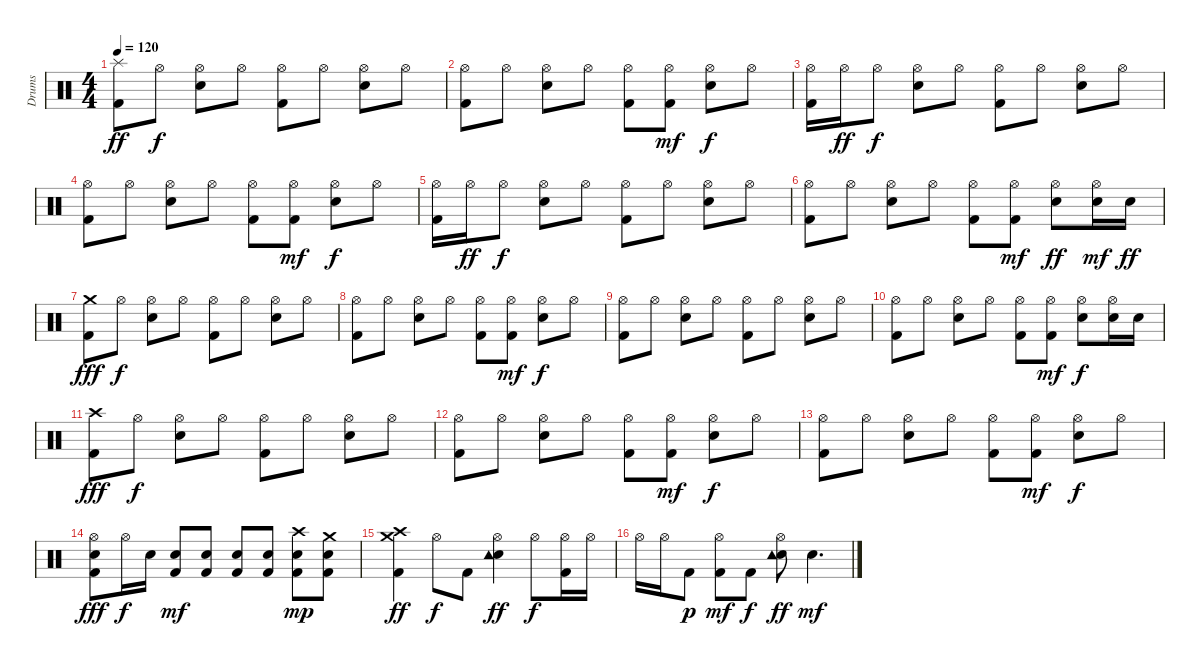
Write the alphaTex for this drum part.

\track ("Drums" "Drums") {instrument percussion}
\staff {score}
\articulation defaults
\ts (4 4)
\tempo 120
\clef neutral
\ks c
("Splash (hit)" "Kick (hit) 2").8{dy ff} "Hi-Hat (open)".8{dy f} ("Hi-Hat (open)" "Electric Snare (hit)").8 "Hi-Hat (open)".8 ("Hi-Hat (open)" "Kick (hit) 2").8 "Hi-Hat (open)".8 ("Hi-Hat (open)" "Electric Snare (hit)").8 "Hi-Hat (open)".8 |
("Hi-Hat (open)" "Kick (hit) 2").8 "Hi-Hat (open)".8 ("Hi-Hat (open)" "Electric Snare (hit)").8 "Hi-Hat (open)".8 ("Hi-Hat (open)" "Kick (hit) 2").8 ("Hi-Hat (open)" "Kick (hit) 2").8{dy mf} ("Hi-Hat (open)" "Electric Snare (hit)").8{dy f} "Hi-Hat (open)".8 |
("Hi-Hat (open)" "Kick (hit) 2").16 "Hi-Hat (open)".16{dy ff} "Hi-Hat (open)".8{dy f} ("Hi-Hat (open)" "Electric Snare (hit)").8 "Hi-Hat (open)".8 ("Hi-Hat (open)" "Kick (hit) 2").8 "Hi-Hat (open)".8 ("Hi-Hat (open)" "Electric Snare (hit)").8 "Hi-Hat (open)".8 |
("Hi-Hat (open)" "Kick (hit) 2").8 "Hi-Hat (open)".8 ("Hi-Hat (open)" "Electric Snare (hit)").8 "Hi-Hat (open)".8 ("Hi-Hat (open)" "Kick (hit) 2").8 ("Hi-Hat (open)" "Kick (hit) 2").8{dy mf} ("Hi-Hat (open)" "Electric Snare (hit)").8{dy f} "Hi-Hat (open)".8 |
("Hi-Hat (open)" "Kick (hit) 2").16 "Hi-Hat (open)".16{dy ff} "Hi-Hat (open)".8{dy f} ("Hi-Hat (open)" "Electric Snare (hit)").8 "Hi-Hat (open)".8 ("Hi-Hat (open)" "Kick (hit) 2").8 "Hi-Hat (open)".8 ("Hi-Hat (open)" "Electric Snare (hit)").8 "Hi-Hat (open)".8 |
("Hi-Hat (open)" "Kick (hit) 2").8 "Hi-Hat (open)".8 ("Hi-Hat (open)" "Electric Snare (hit)").8 "Hi-Hat (open)".8 ("Hi-Hat (open)" "Kick (hit) 2").8 ("Hi-Hat (open)" "Kick (hit) 2").8{dy mf} ("Hi-Hat (open)" "Electric Snare (hit)").8{dy ff} ("Hi-Hat (open)" "Electric Snare (hit)").16{dy mf} "Electric Snare (hit)".16{dy ff} |
("Crash medium (hit)" "Kick (hit) 2").8{dy fff} "Hi-Hat (open)".8{dy f} ("Hi-Hat (open)" "Electric Snare (hit)").8 "Hi-Hat (open)".8 ("Hi-Hat (open)" "Kick (hit) 2").8 "Hi-Hat (open)".8 ("Hi-Hat (open)" "Electric Snare (hit)").8 "Hi-Hat (open)".8 |
("Hi-Hat (open)" "Kick (hit) 2").8 "Hi-Hat (open)".8 ("Hi-Hat (open)" "Electric Snare (hit)").8 "Hi-Hat (open)".8 ("Hi-Hat (open)" "Kick (hit) 2").8 ("Hi-Hat (open)" "Kick (hit) 2").8{dy mf} ("Hi-Hat (open)" "Electric Snare (hit)").8{dy f} "Hi-Hat (open)".8 |
("Hi-Hat (open)" "Kick (hit) 2").8 "Hi-Hat (open)".8 ("Hi-Hat (open)" "Electric Snare (hit)").8 "Hi-Hat (open)".8 ("Hi-Hat (open)" "Kick (hit) 2").8 "Hi-Hat (open)".8 ("Hi-Hat (open)" "Electric Snare (hit)").8 "Hi-Hat (open)".8 |
("Hi-Hat (open)" "Kick (hit) 2").8 "Hi-Hat (open)".8 ("Hi-Hat (open)" "Electric Snare (hit)").8 "Hi-Hat (open)".8 ("Hi-Hat (open)" "Kick (hit) 2").8 ("Hi-Hat (open)" "Kick (hit) 2").8{dy mf} ("Hi-Hat (open)" "Electric Snare (hit)").8{dy f} ("Hi-Hat (open)" "Electric Snare (hit)").16 "Electric Snare (hit)".16 |
("Crash high (hit)" "Kick (hit) 2").8{dy fff} "Hi-Hat (open)".8{dy f} ("Hi-Hat (open)" "Electric Snare (hit)").8 "Hi-Hat (open)".8 ("Hi-Hat (open)" "Kick (hit) 2").8 "Hi-Hat (open)".8 ("Hi-Hat (open)" "Electric Snare (hit)").8 "Hi-Hat (open)".8 |
("Hi-Hat (open)" "Kick (hit) 2").8 "Hi-Hat (open)".8 ("Hi-Hat (open)" "Electric Snare (hit)").8 "Hi-Hat (open)".8 ("Hi-Hat (open)" "Kick (hit) 2").8 ("Hi-Hat (open)" "Kick (hit) 2").8{dy mf} ("Hi-Hat (open)" "Electric Snare (hit)").8{dy f} "Hi-Hat (open)".8 |
("Hi-Hat (open)" "Kick (hit) 2").8 "Hi-Hat (open)".8 ("Hi-Hat (open)" "Electric Snare (hit)").8 "Hi-Hat (open)".8 ("Hi-Hat (open)" "Kick (hit) 2").8 ("Hi-Hat (open)" "Kick (hit) 2").8{dy mf} ("Hi-Hat (open)" "Electric Snare (hit)").8{dy f} "Hi-Hat (open)".8 |
("Hi-Hat (open)" "Electric Snare (hit)" "Kick (hit) 2").8{dy fff} "Hi-Hat (open)".16{dy f} "Electric Snare (hit)".16 ("Electric Snare (hit)" "Kick (hit) 2").8{dy mf} ("Electric Snare (hit)" "Kick (hit) 2").8 ("Electric Snare (hit)" "Kick (hit) 2").8 ("Electric Snare (hit)" "Kick (hit) 2").8 ("Crash high (hit)" "Electric Snare (hit)" "Kick (hit) 2").8{dy mp} ("Crash medium (hit)" "Electric Snare (hit)" "Kick (hit) 2").8 |
("Crash high (hit)" "Crash medium (hit)" "Kick (hit) 2").4{dy ff} "Hi-Hat (open)".8{dy f} "Kick (hit) 2".8 ("Hi-Hat (open)" "Electric Snare (hit)" "Tambourine (hit)").4{dy ff} "Hi-Hat (open)".8{dy f} ("Hi-Hat (open)" "Kick (hit) 2").16 "Hi-Hat (open)".16 |
"Hi-Hat (open)".16 "Hi-Hat (open)".16 "Kick (hit) 2".8{dy p} ("Hi-Hat (open)" "Kick (hit) 2").8{dy mf} "Kick (hit) 2".8{dy f} ("Hi-Hat (open)" "Electric Snare (hit)" "Tambourine (hit)").8{dy ff} "Electric Snare (hit)".4{d dy mf}
